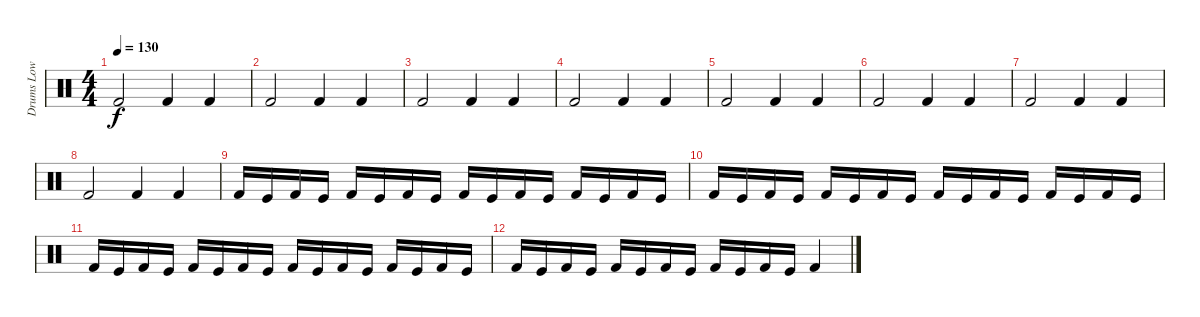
\track ("Drums Low" "Drums Low") {instrument percussion}
\staff {score}
\articulation defaults
\ts (4 4)
\tempo 130
\clef neutral
\ks c "Kick (hit) 2".2{dy f} "Kick (hit) 2".4 "Kick (hit) 2".4
|
"Kick (hit) 2".2 "Kick (hit) 2".4 "Kick (hit) 2".4 |
"Kick (hit) 2".2 "Kick (hit) 2".4 "Kick (hit) 2".4 |
"Kick (hit) 2".2 "Kick (hit) 2".4 "Kick (hit) 2".4 |
"Kick (hit) 2".2 "Kick (hit) 2".4 "Kick (hit) 2".4 |
"Kick (hit) 2".2 "Kick (hit) 2".4 "Kick (hit) 2".4 |
"Kick (hit) 2".2 "Kick (hit) 2".4 "Kick (hit) 2".4 |
"Kick (hit) 2".2 "Kick (hit) 2".4 "Kick (hit) 2".4 |
"Kick (hit) 2".16 "Kick (hit)".16 "Kick (hit) 2".16 "Kick (hit)".16 "Kick (hit) 2".16 "Kick (hit)".16 "Kick (hit) 2".16 "Kick (hit)".16 "Kick (hit) 2".16 "Kick (hit)".16 "Kick (hit) 2".16 "Kick (hit)".16 "Kick (hit) 2".16 "Kick (hit)".16 "Kick (hit) 2".16 "Kick (hit)".16 |
"Kick (hit) 2".16 "Kick (hit)".16 "Kick (hit) 2".16 "Kick (hit)".16 "Kick (hit) 2".16 "Kick (hit)".16 "Kick (hit) 2".16 "Kick (hit)".16 "Kick (hit) 2".16 "Kick (hit)".16 "Kick (hit) 2".16 "Kick (hit)".16 "Kick (hit) 2".16 "Kick (hit)".16 "Kick (hit) 2".16 "Kick (hit)".16 |
"Kick (hit) 2".16 "Kick (hit)".16 "Kick (hit) 2".16 "Kick (hit)".16 "Kick (hit) 2".16 "Kick (hit)".16 "Kick (hit) 2".16 "Kick (hit)".16 "Kick (hit) 2".16 "Kick (hit)".16 "Kick (hit) 2".16 "Kick (hit)".16 "Kick (hit) 2".16 "Kick (hit)".16 "Kick (hit) 2".16 "Kick (hit)".16 |
"Kick (hit) 2".16 "Kick (hit)".16 "Kick (hit) 2".16 "Kick (hit)".16 "Kick (hit) 2".16 "Kick (hit)".16 "Kick (hit) 2".16 "Kick (hit)".16 "Kick (hit) 2".16 "Kick (hit)".16 "Kick (hit) 2".16 "Kick (hit)".16 "Kick (hit) 2".4
